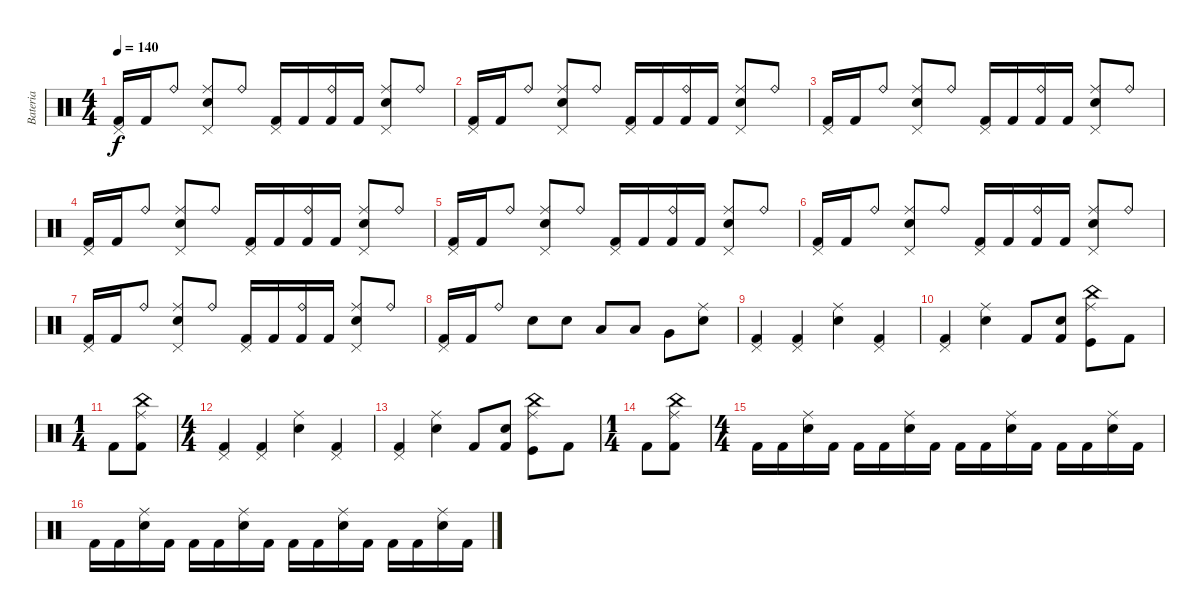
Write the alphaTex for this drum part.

\track ("Bateria" "Bateria") {instrument percussion}
\staff {score}
\articulation defaults
\ts (4 4)
\tempo 140
\clef neutral
\ks c
("Pedal Hi-Hat (hit)" "Kick (hit) 2").16{dy f} "Kick (hit) 2".16 "Ride (bell)".8 ("Pedal Hi-Hat (hit)" "Electric Snare (hit)" "Ride (middle)").8 "Ride (bell)".8 ("Pedal Hi-Hat (hit)" "Kick (hit) 2").16 "Kick (hit) 2".16 ("Ride (bell)" "Kick (hit) 2").16 "Kick (hit) 2".16 ("Pedal Hi-Hat (hit)" "Electric Snare (hit)" "Ride (middle)").8 "Ride (bell)".8 |
("Pedal Hi-Hat (hit)" "Kick (hit) 2").16 "Kick (hit) 2".16 "Ride (bell)".8 ("Pedal Hi-Hat (hit)" "Electric Snare (hit)" "Ride (middle)").8 "Ride (bell)".8 ("Pedal Hi-Hat (hit)" "Kick (hit) 2").16 "Kick (hit) 2".16 ("Ride (bell)" "Kick (hit) 2").16 "Kick (hit) 2".16 ("Pedal Hi-Hat (hit)" "Electric Snare (hit)" "Ride (middle)").8 "Ride (bell)".8 |
("Pedal Hi-Hat (hit)" "Kick (hit) 2").16 "Kick (hit) 2".16 "Ride (bell)".8 ("Pedal Hi-Hat (hit)" "Electric Snare (hit)" "Ride (middle)").8 "Ride (bell)".8 ("Pedal Hi-Hat (hit)" "Kick (hit) 2").16 "Kick (hit) 2".16 ("Ride (bell)" "Kick (hit) 2").16 "Kick (hit) 2".16 ("Pedal Hi-Hat (hit)" "Electric Snare (hit)" "Ride (middle)").8 "Ride (bell)".8 |
("Pedal Hi-Hat (hit)" "Kick (hit) 2").16 "Kick (hit) 2".16 "Ride (bell)".8 ("Pedal Hi-Hat (hit)" "Electric Snare (hit)" "Ride (middle)").8 "Ride (bell)".8 ("Pedal Hi-Hat (hit)" "Kick (hit) 2").16 "Kick (hit) 2".16 ("Ride (bell)" "Kick (hit) 2").16 "Kick (hit) 2".16 ("Pedal Hi-Hat (hit)" "Electric Snare (hit)" "Ride (middle)").8 "Ride (bell)".8 |
("Pedal Hi-Hat (hit)" "Kick (hit) 2").16 "Kick (hit) 2".16 "Ride (bell)".8 ("Pedal Hi-Hat (hit)" "Electric Snare (hit)" "Ride (middle)").8 "Ride (bell)".8 ("Pedal Hi-Hat (hit)" "Kick (hit) 2").16 "Kick (hit) 2".16 ("Ride (bell)" "Kick (hit) 2").16 "Kick (hit) 2".16 ("Pedal Hi-Hat (hit)" "Electric Snare (hit)" "Ride (middle)").8 "Ride (bell)".8 |
("Pedal Hi-Hat (hit)" "Kick (hit) 2").16 "Kick (hit) 2".16 "Ride (bell)".8 ("Pedal Hi-Hat (hit)" "Electric Snare (hit)" "Ride (middle)").8 "Ride (bell)".8 ("Pedal Hi-Hat (hit)" "Kick (hit) 2").16 "Kick (hit) 2".16 ("Ride (bell)" "Kick (hit) 2").16 "Kick (hit) 2".16 ("Pedal Hi-Hat (hit)" "Electric Snare (hit)" "Ride (middle)").8 "Ride (bell)".8 |
("Pedal Hi-Hat (hit)" "Kick (hit) 2").16 "Kick (hit) 2".16 "Ride (bell)".8 ("Pedal Hi-Hat (hit)" "Electric Snare (hit)" "Ride (middle)").8 "Ride (bell)".8 ("Pedal Hi-Hat (hit)" "Kick (hit) 2").16 "Kick (hit) 2".16 ("Ride (bell)" "Kick (hit) 2").16 "Kick (hit) 2".16 ("Pedal Hi-Hat (hit)" "Electric Snare (hit)" "Ride (middle)").8 "Ride (bell)".8 |
("Pedal Hi-Hat (hit)" "Kick (hit) 2").16 "Kick (hit) 2".16 "Ride (bell)".8 "Electric Snare (hit)".8 "Electric Snare (hit)".8 "Low Tom (hit)".8 "Low Tom (hit)".8 "Very Low Tom (hit)".8 ("Electric Snare (hit)" "Ride (middle)").8 |
("Pedal Hi-Hat (hit)" "Kick (hit) 2").4 ("Pedal Hi-Hat (hit)" "Kick (hit) 2").4 ("Electric Snare (hit)" "Ride (middle)").4 ("Pedal Hi-Hat (hit)" "Kick (hit) 2").4 |
("Pedal Hi-Hat (hit)" "Kick (hit) 2").4 ("Electric Snare (hit)" "Ride (middle)").4 "Kick (hit) 2".8 ("Kick (hit) 2" "Electric Snare (hit)").8 ("Kick (hit)" "Ride (middle)" "China (hit)").8 "Kick (hit) 2".8 |
\ts (1 4)
"Kick (hit) 2".8 ("Kick (hit) 2" "Ride (middle)" "China (hit)").8 |
\ts (4 4)
("Pedal Hi-Hat (hit)" "Kick (hit) 2").4 ("Pedal Hi-Hat (hit)" "Kick (hit) 2").4 ("Electric Snare (hit)" "Ride (middle)").4 ("Pedal Hi-Hat (hit)" "Kick (hit) 2").4 |
("Pedal Hi-Hat (hit)" "Kick (hit) 2").4 ("Electric Snare (hit)" "Ride (middle)").4 "Kick (hit) 2".8 ("Kick (hit) 2" "Electric Snare (hit)").8 ("Kick (hit)" "Ride (middle)" "China (hit)").8 "Kick (hit) 2".8 |
\ts (1 4)
"Kick (hit) 2".8 ("Kick (hit) 2" "Ride (middle)" "China (hit)").8 |
\ts (4 4)
"Kick (hit) 2".16 "Kick (hit) 2".16 ("Electric Snare (hit)" "Ride (middle)").16 "Kick (hit) 2".16 "Kick (hit) 2".16 "Kick (hit) 2".16 ("Electric Snare (hit)" "Ride (middle)").16 "Kick (hit) 2".16 "Kick (hit) 2".16 "Kick (hit) 2".16 ("Electric Snare (hit)" "Ride (middle)").16 "Kick (hit) 2".16 "Kick (hit) 2".16 "Kick (hit) 2".16 ("Electric Snare (hit)" "Ride (middle)").16 "Kick (hit) 2".16 |
"Kick (hit) 2".16 "Kick (hit) 2".16 ("Electric Snare (hit)" "Ride (middle)").16 "Kick (hit) 2".16 "Kick (hit) 2".16 "Kick (hit) 2".16 ("Electric Snare (hit)" "Ride (middle)").16 "Kick (hit) 2".16 "Kick (hit) 2".16 "Kick (hit) 2".16 ("Electric Snare (hit)" "Ride (middle)").16 "Kick (hit) 2".16 "Kick (hit) 2".16 "Kick (hit) 2".16 ("Electric Snare (hit)" "Ride (middle)").16 "Kick (hit) 2".16
